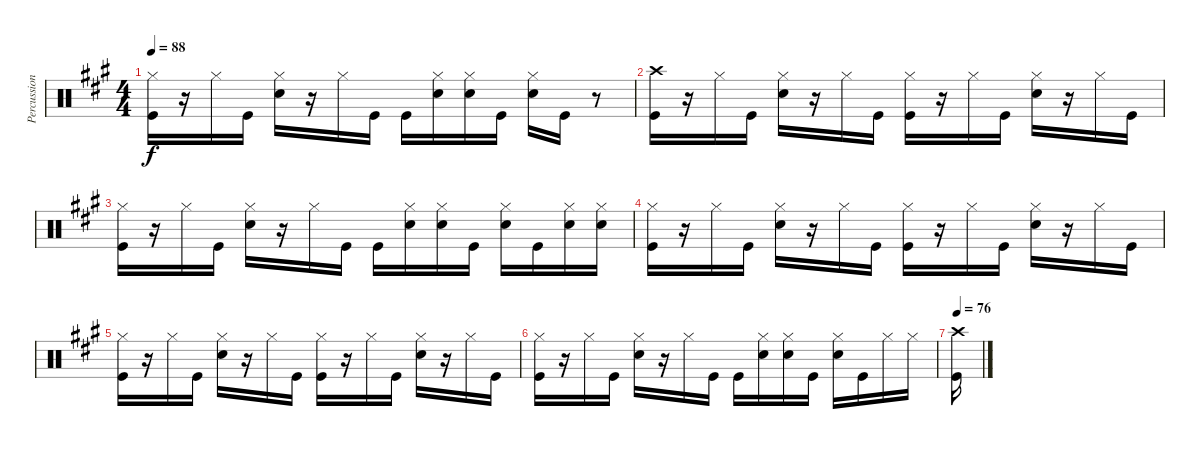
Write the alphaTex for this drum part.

\track ("Percussion" "Percussion") {instrument percussion}
\staff {score}
\articulation defaults
\ts (4 4)
\tempo 88
\clef neutral
\ks a
("Hi-Hat (closed)" "Kick (hit)").16{dy f} r.16 "Hi-Hat (closed)".16 "Kick (hit)".16 ("Hi-Hat (closed)" "Snare (hit) 2").16 r.16 "Hi-Hat (closed)".16 "Kick (hit)".16 "Kick (hit)".16 ("Hi-Hat (closed)" "Snare (hit) 2").16 ("Hi-Hat (closed)" "Snare (hit) 2").16 "Kick (hit)".16 ("Hi-Hat (closed)" "Snare (hit) 2").16 "Kick (hit)".16 r.8 |
("Crash high (hit)" "Kick (hit)").16 r.16 "Hi-Hat (closed)".16 "Kick (hit)".16 ("Hi-Hat (closed)" "Snare (hit) 2").16 r.16 "Hi-Hat (closed)".16 "Kick (hit)".16 ("Hi-Hat (closed)" "Kick (hit)").16 r.16 "Hi-Hat (closed)".16 "Kick (hit)".16 ("Hi-Hat (closed)" "Snare (hit) 2").16 r.16 "Hi-Hat (closed)".16 "Kick (hit)".16 |
("Hi-Hat (closed)" "Kick (hit)").16 r.16 "Hi-Hat (closed)".16 "Kick (hit)".16 ("Hi-Hat (closed)" "Snare (hit) 2").16 r.16 "Hi-Hat (closed)".16 "Kick (hit)".16 "Kick (hit)".16 ("Hi-Hat (closed)" "Snare (hit) 2").16 ("Hi-Hat (closed)" "Snare (hit) 2").16 "Kick (hit)".16 ("Hi-Hat (closed)" "Snare (hit) 2").16 "Kick (hit)".16 ("Hi-Hat (closed)" "Snare (hit) 2").16 ("Hi-Hat (closed)" "Snare (hit) 2").16 |
("Hi-Hat (closed)" "Kick (hit)").16 r.16 "Hi-Hat (closed)".16 "Kick (hit)".16 ("Hi-Hat (closed)" "Snare (hit) 2").16 r.16 "Hi-Hat (closed)".16 "Kick (hit)".16 ("Hi-Hat (closed)" "Kick (hit)").16 r.16 "Hi-Hat (closed)".16 "Kick (hit)".16 ("Hi-Hat (closed)" "Snare (hit) 2").16 r.16 "Hi-Hat (closed)".16 "Kick (hit)".16 |
("Hi-Hat (closed)" "Kick (hit)").16 r.16 "Hi-Hat (closed)".16 "Kick (hit)".16 ("Hi-Hat (closed)" "Snare (hit) 2").16 r.16 "Hi-Hat (closed)".16 "Kick (hit)".16 ("Hi-Hat (closed)" "Kick (hit)").16 r.16 "Hi-Hat (closed)".16 "Kick (hit)".16 ("Hi-Hat (closed)" "Snare (hit) 2").16 r.16 "Hi-Hat (closed)".16 "Kick (hit)".16 |
("Hi-Hat (closed)" "Kick (hit)").16 r.16 "Hi-Hat (closed)".16 "Kick (hit)".16 ("Hi-Hat (closed)" "Snare (hit) 2").16 r.16 "Hi-Hat (closed)".16 "Kick (hit)".16 "Kick (hit)".16 ("Hi-Hat (closed)" "Snare (hit) 2").16 ("Hi-Hat (closed)" "Snare (hit) 2").16 "Kick (hit)".16 ("Hi-Hat (closed)" "Snare (hit) 2").16 "Kick (hit)".16 "Hi-Hat (closed)".16 "Hi-Hat (closed)".16 |
\tempo 76
("Crash high (hit)" "Kick (hit)").16
